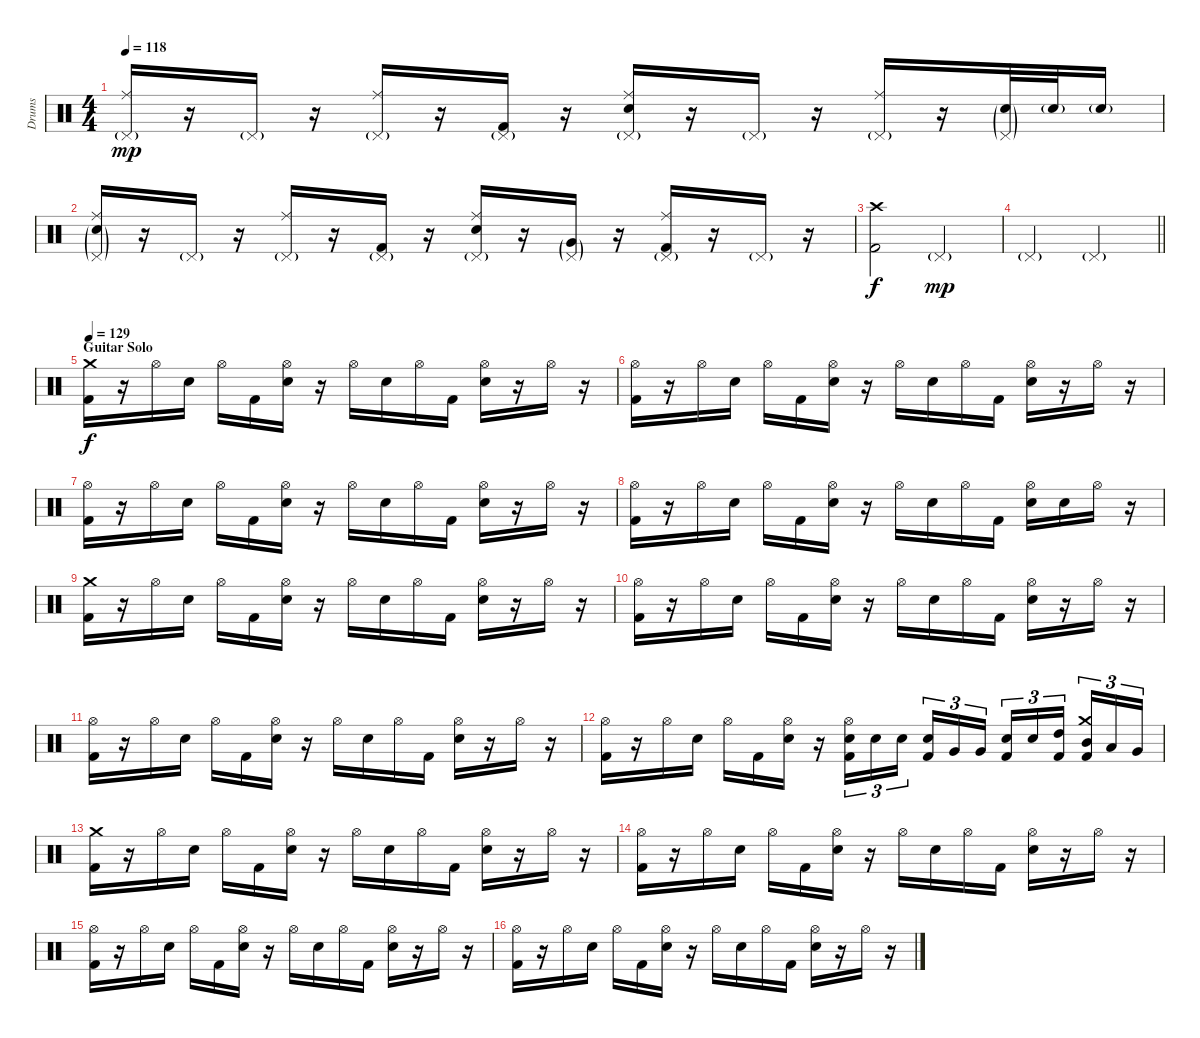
\track ("Drums" "Drums") {instrument percussion}
\staff {score}
\articulation defaults
\ts (4 4)
\tempo 118
\clef neutral
\ks c
("Ride (middle)" "Pedal Hi-Hat (hit)"{g}).16{dy mp} r.16 "Pedal Hi-Hat (hit)"{g}.16 r.16 ("Ride (middle)" "Pedal Hi-Hat (hit)"{g}).16 r.16 ("Kick (hit) 2" "Pedal Hi-Hat (hit)"{g}).16 r.16 ("Ride (middle)" "Electric Snare (hit)" "Pedal Hi-Hat (hit)"{g}).16 r.16 "Pedal Hi-Hat (hit)"{g}.16 r.16 ("Ride (middle)" "Pedal Hi-Hat (hit)"{g}).16 r.16 ("Electric Snare (hit)"{g} "Pedal Hi-Hat (hit)"{g}).32 "Electric Snare (hit)"{g}.32 "Electric Snare (hit)"{g}.16 |
("Ride (middle)" "Electric Snare (hit)"{g} "Pedal Hi-Hat (hit)"{g}).16 r.16 "Pedal Hi-Hat (hit)"{g}.16 r.16 ("Ride (middle)" "Pedal Hi-Hat (hit)"{g}).16 r.16 ("Kick (hit) 2" "Pedal Hi-Hat (hit)"{g}).16 r.16 ("Ride (middle)" "Electric Snare (hit)" "Pedal Hi-Hat (hit)"{g}).16 r.16 ("Very Low Tom (hit)"{g} "Pedal Hi-Hat (hit)"{g}).16 r.16 ("Ride (middle)" "Kick (hit) 2" "Pedal Hi-Hat (hit)"{g}).16 r.16 "Pedal Hi-Hat (hit)"{g}.16 r.16 |
("Crash high (hit)" "Kick (hit) 2").2{dy f} "Pedal Hi-Hat (hit)"{g}.2{dy mp} |
\barLineRight lightlight "Pedal Hi-Hat (hit)"{g}.2 "Pedal Hi-Hat (hit)"{g}.2
|
\section ("" "Guitar Solo")
\tempo 129
("Crash medium (hit)" "Kick (hit) 2").16{dy f} r.16 "Hi-Hat (open)".16 "Electric Snare (hit)".16 "Hi-Hat (open)".16 "Kick (hit) 2".16 ("Hi-Hat (open)" "Electric Snare (hit)").16 r.16 "Hi-Hat (open)".16 "Electric Snare (hit)".16 "Hi-Hat (open)".16 "Kick (hit) 2".16 ("Hi-Hat (open)" "Electric Snare (hit)").16 r.16 "Hi-Hat (open)".16 r.16 |
("Hi-Hat (open)" "Kick (hit) 2").16 r.16 "Hi-Hat (open)".16 "Electric Snare (hit)".16 "Hi-Hat (open)".16 "Kick (hit) 2".16 ("Hi-Hat (open)" "Electric Snare (hit)").16 r.16 "Hi-Hat (open)".16 "Electric Snare (hit)".16 "Hi-Hat (open)".16 "Kick (hit) 2".16 ("Hi-Hat (open)" "Electric Snare (hit)").16 r.16 "Hi-Hat (open)".16 r.16 |
("Hi-Hat (open)" "Kick (hit) 2").16 r.16 "Hi-Hat (open)".16 "Electric Snare (hit)".16 "Hi-Hat (open)".16 "Kick (hit) 2".16 ("Hi-Hat (open)" "Electric Snare (hit)").16 r.16 "Hi-Hat (open)".16 "Electric Snare (hit)".16 "Hi-Hat (open)".16 "Kick (hit) 2".16 ("Hi-Hat (open)" "Electric Snare (hit)").16 r.16 "Hi-Hat (open)".16 r.16 |
("Hi-Hat (open)" "Kick (hit) 2").16 r.16 "Hi-Hat (open)".16 "Electric Snare (hit)".16 "Hi-Hat (open)".16 "Kick (hit) 2".16 ("Hi-Hat (open)" "Electric Snare (hit)").16 r.16 "Hi-Hat (open)".16 "Electric Snare (hit)".16 "Hi-Hat (open)".16 "Kick (hit) 2".16 ("Hi-Hat (open)" "Electric Snare (hit)").16 "Electric Snare (hit)".16 "Hi-Hat (open)".16 r.16 |
("Crash medium (hit)" "Kick (hit) 2").16 r.16 "Hi-Hat (open)".16 "Electric Snare (hit)".16 "Hi-Hat (open)".16 "Kick (hit) 2".16 ("Hi-Hat (open)" "Electric Snare (hit)").16 r.16 "Hi-Hat (open)".16 "Electric Snare (hit)".16 "Hi-Hat (open)".16 "Kick (hit) 2".16 ("Hi-Hat (open)" "Electric Snare (hit)").16 r.16 "Hi-Hat (open)".16 r.16 |
("Hi-Hat (open)" "Kick (hit) 2").16 r.16 "Hi-Hat (open)".16 "Electric Snare (hit)".16 "Hi-Hat (open)".16 "Kick (hit) 2".16 ("Hi-Hat (open)" "Electric Snare (hit)").16 r.16 "Hi-Hat (open)".16 "Electric Snare (hit)".16 "Hi-Hat (open)".16 "Kick (hit) 2".16 ("Hi-Hat (open)" "Electric Snare (hit)").16 r.16 "Hi-Hat (open)".16 r.16 |
("Hi-Hat (open)" "Kick (hit) 2").16 r.16 "Hi-Hat (open)".16 "Electric Snare (hit)".16 "Hi-Hat (open)".16 "Kick (hit) 2".16 ("Hi-Hat (open)" "Electric Snare (hit)").16 r.16 "Hi-Hat (open)".16 "Electric Snare (hit)".16 "Hi-Hat (open)".16 "Kick (hit) 2".16 ("Hi-Hat (open)" "Electric Snare (hit)").16 r.16 "Hi-Hat (open)".16 r.16 |
("Hi-Hat (open)" "Kick (hit) 2").16 r.16 "Hi-Hat (open)".16 "Electric Snare (hit)".16 "Hi-Hat (open)".16 "Kick (hit) 2".16 ("Hi-Hat (open)" "Electric Snare (hit)").16 r.16 ("Hi-Hat (open)" "Electric Snare (hit)" "Kick (hit) 2").16{tu (3 2)} "Electric Snare (hit)".16{tu (3 2)} "Electric Snare (hit)".16{tu (3 2) beam splitsecondary} ("Electric Snare (hit)" "Kick (hit) 2").16{tu (3 2)} "Very Low Tom (hit)".16{tu (3 2)} "Very Low Tom (hit)".16{tu (3 2)} ("Electric Snare (hit)" "Kick (hit) 2").16{tu (3 2)} "Electric Snare (hit)".16{tu (3 2)} ("High Tom (hit)" "Kick (hit) 2").16{tu (3 2) beam splitsecondary} ("Crash medium (hit)" "Mid Tom (hit)" "Kick (hit) 2").16{tu (3 2)} "Low Tom (hit)".16{tu (3 2)} "Very Low Tom (hit)".16{tu (3 2)} |
("Crash medium (hit)" "Kick (hit) 2").16 r.16 "Hi-Hat (open)".16 "Electric Snare (hit)".16 "Hi-Hat (open)".16 "Kick (hit) 2".16 ("Hi-Hat (open)" "Electric Snare (hit)").16 r.16 "Hi-Hat (open)".16 "Electric Snare (hit)".16 "Hi-Hat (open)".16 "Kick (hit) 2".16 ("Hi-Hat (open)" "Electric Snare (hit)").16 r.16 "Hi-Hat (open)".16 r.16 |
("Hi-Hat (open)" "Kick (hit) 2").16 r.16 "Hi-Hat (open)".16 "Electric Snare (hit)".16 "Hi-Hat (open)".16 "Kick (hit) 2".16 ("Hi-Hat (open)" "Electric Snare (hit)").16 r.16 "Hi-Hat (open)".16 "Electric Snare (hit)".16 "Hi-Hat (open)".16 "Kick (hit) 2".16 ("Hi-Hat (open)" "Electric Snare (hit)").16 r.16 "Hi-Hat (open)".16 r.16 |
("Hi-Hat (open)" "Kick (hit) 2").16 r.16 "Hi-Hat (open)".16 "Electric Snare (hit)".16 "Hi-Hat (open)".16 "Kick (hit) 2".16 ("Hi-Hat (open)" "Electric Snare (hit)").16 r.16 "Hi-Hat (open)".16 "Electric Snare (hit)".16 "Hi-Hat (open)".16 "Kick (hit) 2".16 ("Hi-Hat (open)" "Electric Snare (hit)").16 r.16 "Hi-Hat (open)".16 r.16 |
("Hi-Hat (open)" "Kick (hit) 2").16 r.16 "Hi-Hat (open)".16 "Electric Snare (hit)".16 "Hi-Hat (open)".16 "Kick (hit) 2".16 ("Hi-Hat (open)" "Electric Snare (hit)").16 r.16 "Hi-Hat (open)".16 "Electric Snare (hit)".16 "Hi-Hat (open)".16 "Kick (hit) 2".16 ("Hi-Hat (open)" "Electric Snare (hit)").16 r.16 "Hi-Hat (open)".16 r.16
